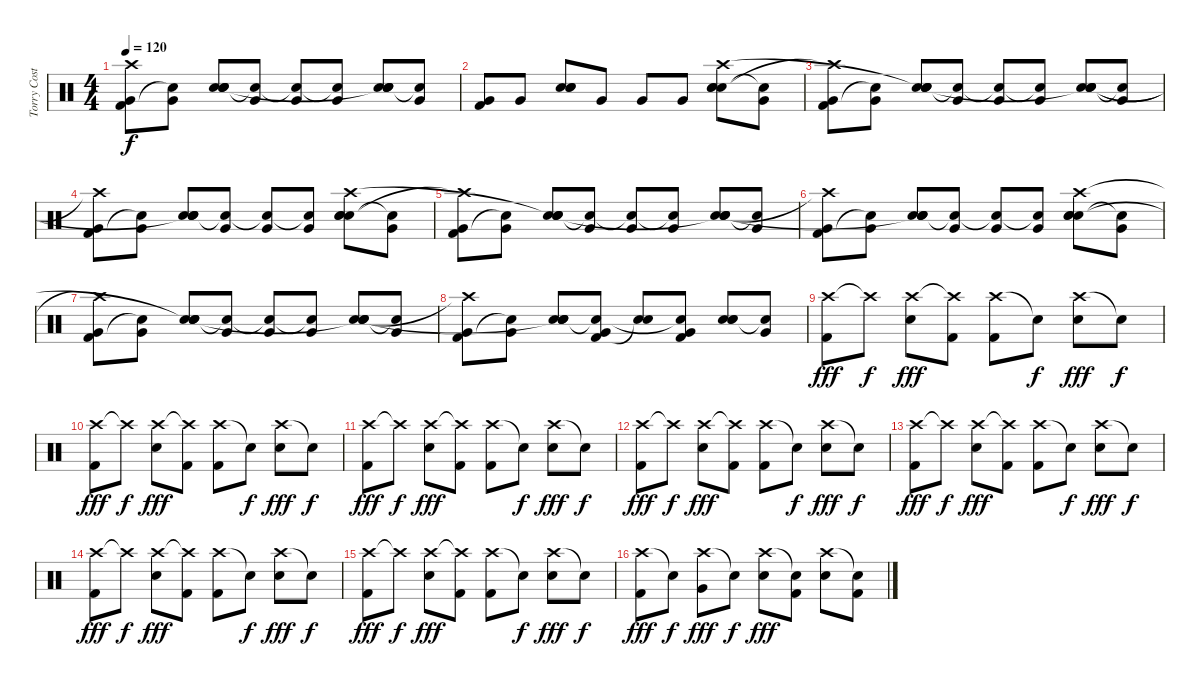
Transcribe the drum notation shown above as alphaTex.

\track ("Torry Costellano" "Torry Cost") {instrument percussion}
\staff {score}
\articulation defaults
\ts (4 4)
\tempo 120
\clef neutral
\ks c
("Very Low Tom (hit)" "Kick (hit) 2" "Crash high (hit)").8{dy f} ("Very Low Tom (hit)" "Snare (hit)"{t}).8 ("Hand Clap (hit)" "Hand Clap (hit)" "Electric Snare (hit)" "Snare (hit)").8 ("Very Low Tom (hit)" "Snare (hit)"{t}).8 ("Very Low Tom (hit)" "Snare (hit)"{t}).8 ("Very Low Tom (hit)" "Snare (hit)"{t}).8 ("Hand Clap (hit)" "Hand Clap (hit)" "Electric Snare (hit)" "Snare (hit)"{t}).8 ("Very Low Tom (hit)" "Snare (hit)"{t}).8 |
("Very Low Tom (hit)" "Kick (hit) 2").8 "Very Low Tom (hit)".8 ("Hand Clap (hit)" "Hand Clap (hit)" "Electric Snare (hit)").8 "Very Low Tom (hit)".8 "Very Low Tom (hit)".8 "Very Low Tom (hit)".8 ("Hand Clap (hit)" "Hand Clap (hit)" "Electric Snare (hit)" "Crash high (hit)").8 ("Very Low Tom (hit)" "Snare (hit)"{t}).8 |
("Very Low Tom (hit)" "Kick (hit) 2" "Crash high (hit)"{t}).8 ("Very Low Tom (hit)" "Snare (hit)"{t}).8 ("Hand Clap (hit)" "Hand Clap (hit)" "Electric Snare (hit)" "Snare (hit)"{t}).8 ("Very Low Tom (hit)" "Snare (hit)"{t}).8 ("Very Low Tom (hit)" "Snare (hit)"{t}).8 ("Very Low Tom (hit)" "Snare (hit)"{t}).8 ("Hand Clap (hit)" "Hand Clap (hit)" "Electric Snare (hit)" "Snare (hit)"{t}).8 ("Very Low Tom (hit)" "Snare (hit)"{t}).8 |
("Very Low Tom (hit)" "Kick (hit) 2" "Crash high (hit)"{t}).8 ("Very Low Tom (hit)" "Snare (hit)"{t}).8 ("Hand Clap (hit)" "Hand Clap (hit)" "Electric Snare (hit)" "Snare (hit)"{t}).8 ("Very Low Tom (hit)" "Snare (hit)"{t}).8 ("Very Low Tom (hit)" "Snare (hit)"{t}).8 ("Very Low Tom (hit)" "Snare (hit)"{t}).8 ("Hand Clap (hit)" "Hand Clap (hit)" "Electric Snare (hit)" "Crash high (hit)").8 ("Very Low Tom (hit)" "Snare (hit)"{t}).8 |
("Very Low Tom (hit)" "Kick (hit) 2" "Crash high (hit)"{t}).8 ("Very Low Tom (hit)" "Snare (hit)"{t}).8 ("Hand Clap (hit)" "Hand Clap (hit)" "Electric Snare (hit)" "Snare (hit)"{t}).8 ("Very Low Tom (hit)" "Snare (hit)"{t}).8 ("Very Low Tom (hit)" "Snare (hit)"{t}).8 ("Very Low Tom (hit)" "Snare (hit)"{t}).8 ("Hand Clap (hit)" "Hand Clap (hit)" "Electric Snare (hit)" "Snare (hit)"{t}).8 ("Very Low Tom (hit)" "Snare (hit)"{t}).8 |
("Very Low Tom (hit)" "Kick (hit) 2" "Crash high (hit)"{t}).8 ("Very Low Tom (hit)" "Snare (hit)"{t}).8 ("Hand Clap (hit)" "Hand Clap (hit)" "Electric Snare (hit)" "Snare (hit)"{t}).8 ("Very Low Tom (hit)" "Snare (hit)"{t}).8 ("Very Low Tom (hit)" "Snare (hit)"{t}).8 ("Very Low Tom (hit)" "Snare (hit)"{t}).8 ("Hand Clap (hit)" "Hand Clap (hit)" "Electric Snare (hit)" "Crash high (hit)").8 ("Very Low Tom (hit)" "Snare (hit)"{t}).8 |
("Very Low Tom (hit)" "Kick (hit) 2" "Crash high (hit)"{t}).8 ("Very Low Tom (hit)" "Snare (hit)"{t}).8 ("Hand Clap (hit)" "Hand Clap (hit)" "Electric Snare (hit)" "Snare (hit)"{t}).8 ("Very Low Tom (hit)" "Snare (hit)"{t}).8 ("Very Low Tom (hit)" "Snare (hit)"{t}).8 ("Very Low Tom (hit)" "Snare (hit)"{t}).8 ("Hand Clap (hit)" "Hand Clap (hit)" "Electric Snare (hit)" "Snare (hit)"{t}).8 ("Very Low Tom (hit)" "Snare (hit)"{t}).8 |
("Very Low Tom (hit)" "Kick (hit) 2" "Crash high (hit)"{t}).8 ("Very Low Tom (hit)" "Snare (hit)"{t}).8 ("Hand Clap (hit)" "Hand Clap (hit)" "Electric Snare (hit)" "Snare (hit)"{t}).8 ("Very Low Tom (hit)" "Kick (hit) 2" "Snare (hit)"{t}).8 ("Electric Snare (hit)" "Snare (hit)"{t}).8 ("Very Low Tom (hit)" "Kick (hit) 2" "Snare (hit)"{t}).8 ("Hand Clap (hit)" "Hand Clap (hit)" "Electric Snare (hit)").8 ("Very Low Tom (hit)" "Snare (hit)"{t}).8 |
("Crash high (hit)" "Kick (hit) 2").8{dy fff} "Crash high (hit)"{t}.8{dy f} ("Crash high (hit)" "Electric Snare (hit)").8{dy fff} ("Crash high (hit)"{t} "Kick (hit) 2").8 ("Crash high (hit)" "Kick (hit) 2").8 "Snare (hit)"{t}.8{dy f} ("Crash high (hit)" "Electric Snare (hit)").8{dy fff} "Snare (hit)"{t}.8{dy f} |
("Crash high (hit)" "Kick (hit) 2").8{dy fff} "Crash high (hit)"{t}.8{dy f} ("Crash high (hit)" "Electric Snare (hit)").8{dy fff} ("Crash high (hit)"{t} "Kick (hit) 2").8 ("Crash high (hit)" "Kick (hit) 2").8 "Snare (hit)"{t}.8{dy f} ("Crash high (hit)" "Electric Snare (hit)").8{dy fff} "Snare (hit)"{t}.8{dy f} |
("Crash high (hit)" "Kick (hit) 2").8{dy fff} "Crash high (hit)"{t}.8{dy f} ("Crash high (hit)" "Electric Snare (hit)").8{dy fff} ("Crash high (hit)"{t} "Kick (hit) 2").8 ("Crash high (hit)" "Kick (hit) 2").8 "Snare (hit)"{t}.8{dy f} ("Crash high (hit)" "Electric Snare (hit)").8{dy fff} "Snare (hit)"{t}.8{dy f} |
("Crash high (hit)" "Kick (hit) 2").8{dy fff} "Crash high (hit)"{t}.8{dy f} ("Crash high (hit)" "Electric Snare (hit)").8{dy fff} ("Crash high (hit)"{t} "Kick (hit) 2").8 ("Crash high (hit)" "Kick (hit) 2").8 "Snare (hit)"{t}.8{dy f} ("Crash high (hit)" "Electric Snare (hit)").8{dy fff} "Snare (hit)"{t}.8{dy f} |
("Crash high (hit)" "Kick (hit) 2").8{dy fff} "Crash high (hit)"{t}.8{dy f} ("Crash high (hit)" "Electric Snare (hit)").8{dy fff} ("Crash high (hit)"{t} "Kick (hit) 2").8 ("Crash high (hit)" "Kick (hit) 2").8 "Snare (hit)"{t}.8{dy f} ("Crash high (hit)" "Electric Snare (hit)").8{dy fff} "Snare (hit)"{t}.8{dy f} |
("Crash high (hit)" "Kick (hit) 2").8{dy fff} "Crash high (hit)"{t}.8{dy f} ("Crash high (hit)" "Electric Snare (hit)").8{dy fff} ("Crash high (hit)"{t} "Kick (hit) 2").8 ("Crash high (hit)" "Kick (hit) 2").8 "Snare (hit)"{t}.8{dy f} ("Crash high (hit)" "Electric Snare (hit)").8{dy fff} "Snare (hit)"{t}.8{dy f} |
("Crash high (hit)" "Kick (hit) 2").8{dy fff} "Crash high (hit)"{t}.8{dy f} ("Crash high (hit)" "Electric Snare (hit)").8{dy fff} ("Crash high (hit)"{t} "Kick (hit) 2").8 ("Crash high (hit)" "Kick (hit) 2").8 "Snare (hit)"{t}.8{dy f} ("Crash high (hit)" "Electric Snare (hit)").8{dy fff} "Snare (hit)"{t}.8{dy f} |
("Crash high (hit)" "Kick (hit) 2").8{dy fff} "Snare (hit)"{t}.8{dy f} ("Crash high (hit)" "Very Low Tom (hit)").8{dy fff} "Snare (hit)"{t}.8{dy f} ("Crash high (hit)" "Electric Snare (hit)").8{dy fff} ("Snare (hit)"{t} "Kick (hit) 2").8 ("Crash high (hit)" "Electric Snare (hit)").8 ("Snare (hit)"{t} "Kick (hit) 2").8
